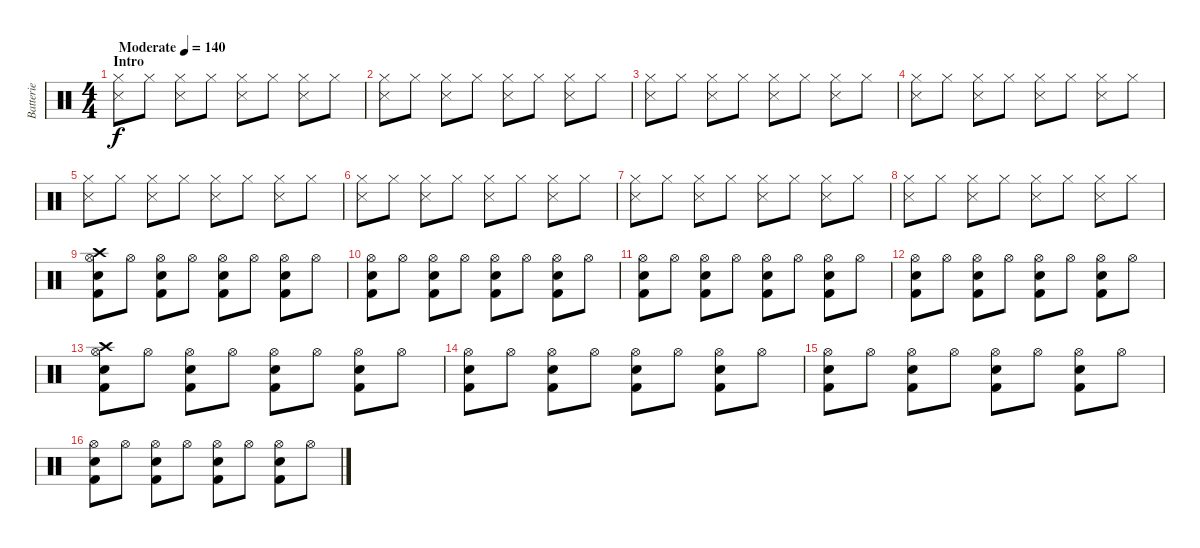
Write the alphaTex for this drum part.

\track ("Batterie" "Batterie") {instrument percussion}
\staff {score}
\articulation defaults
\ts (4 4)
\section ("" "Intro")
\tempo (140 "Moderate")
\clef neutral
\ks c
("Hi-Hat (closed)" "Metronome (hit)").8{dy f} "Hi-Hat (closed)".8 ("Hi-Hat (closed)" "Metronome (hit)").8 "Hi-Hat (closed)".8 ("Hi-Hat (closed)" "Metronome (hit)").8 "Hi-Hat (closed)".8 ("Hi-Hat (closed)" "Metronome (hit)").8 "Hi-Hat (closed)".8 |
("Hi-Hat (closed)" "Metronome (hit)").8 "Hi-Hat (closed)".8 ("Hi-Hat (closed)" "Metronome (hit)").8 "Hi-Hat (closed)".8 ("Hi-Hat (closed)" "Metronome (hit)").8 "Hi-Hat (closed)".8 ("Hi-Hat (closed)" "Metronome (hit)").8 "Hi-Hat (closed)".8 |
("Hi-Hat (closed)" "Metronome (hit)").8 "Hi-Hat (closed)".8 ("Hi-Hat (closed)" "Metronome (hit)").8 "Hi-Hat (closed)".8 ("Hi-Hat (closed)" "Metronome (hit)").8 "Hi-Hat (closed)".8 ("Hi-Hat (closed)" "Metronome (hit)").8 "Hi-Hat (closed)".8 |
("Hi-Hat (closed)" "Metronome (hit)").8 "Hi-Hat (closed)".8 ("Hi-Hat (closed)" "Metronome (hit)").8 "Hi-Hat (closed)".8 ("Hi-Hat (closed)" "Metronome (hit)").8 "Hi-Hat (closed)".8 ("Hi-Hat (closed)" "Metronome (hit)").8 "Hi-Hat (closed)".8 |
("Hi-Hat (closed)" "Metronome (hit)").8 "Hi-Hat (closed)".8 ("Hi-Hat (closed)" "Metronome (hit)").8 "Hi-Hat (closed)".8 ("Hi-Hat (closed)" "Metronome (hit)").8 "Hi-Hat (closed)".8 ("Hi-Hat (closed)" "Metronome (hit)").8 "Hi-Hat (closed)".8 |
("Hi-Hat (closed)" "Metronome (hit)").8 "Hi-Hat (closed)".8 ("Hi-Hat (closed)" "Metronome (hit)").8 "Hi-Hat (closed)".8 ("Hi-Hat (closed)" "Metronome (hit)").8 "Hi-Hat (closed)".8 ("Hi-Hat (closed)" "Metronome (hit)").8 "Hi-Hat (closed)".8 |
("Hi-Hat (closed)" "Metronome (hit)").8 "Hi-Hat (closed)".8 ("Hi-Hat (closed)" "Metronome (hit)").8 "Hi-Hat (closed)".8 ("Hi-Hat (closed)" "Metronome (hit)").8 "Hi-Hat (closed)".8 ("Hi-Hat (closed)" "Metronome (hit)").8 "Hi-Hat (closed)".8 |
("Hi-Hat (closed)" "Metronome (hit)").8 "Hi-Hat (closed)".8 ("Hi-Hat (closed)" "Metronome (hit)").8 "Hi-Hat (closed)".8 ("Hi-Hat (closed)" "Metronome (hit)").8 "Hi-Hat (closed)".8 ("Hi-Hat (closed)" "Metronome (hit)").8 "Hi-Hat (closed)".8 |
("Crash high (hit)" "Hi-Hat (open)" "Electric Snare (hit)" "Kick (hit) 2").8 "Hi-Hat (open)".8 ("Hi-Hat (open)" "Electric Snare (hit)" "Kick (hit) 2").8 "Hi-Hat (open)".8 ("Hi-Hat (open)" "Electric Snare (hit)" "Kick (hit) 2").8 "Hi-Hat (open)".8 ("Hi-Hat (open)" "Electric Snare (hit)" "Kick (hit) 2").8 "Hi-Hat (open)".8 |
("Hi-Hat (open)" "Electric Snare (hit)" "Kick (hit) 2").8 "Hi-Hat (open)".8 ("Hi-Hat (open)" "Electric Snare (hit)" "Kick (hit) 2").8 "Hi-Hat (open)".8 ("Hi-Hat (open)" "Electric Snare (hit)" "Kick (hit) 2").8 "Hi-Hat (open)".8 ("Hi-Hat (open)" "Electric Snare (hit)" "Kick (hit) 2").8 "Hi-Hat (open)".8 |
("Hi-Hat (open)" "Electric Snare (hit)" "Kick (hit) 2").8 "Hi-Hat (open)".8 ("Hi-Hat (open)" "Electric Snare (hit)" "Kick (hit) 2").8 "Hi-Hat (open)".8 ("Hi-Hat (open)" "Electric Snare (hit)" "Kick (hit) 2").8 "Hi-Hat (open)".8 ("Hi-Hat (open)" "Electric Snare (hit)" "Kick (hit) 2").8 "Hi-Hat (open)".8 |
("Hi-Hat (open)" "Electric Snare (hit)" "Kick (hit) 2").8 "Hi-Hat (open)".8 ("Hi-Hat (open)" "Electric Snare (hit)" "Kick (hit) 2").8 "Hi-Hat (open)".8 ("Hi-Hat (open)" "Electric Snare (hit)" "Kick (hit) 2").8 "Hi-Hat (open)".8 ("Hi-Hat (open)" "Electric Snare (hit)" "Kick (hit) 2").8 "Hi-Hat (open)".8 |
("Crash high (hit)" "Hi-Hat (open)" "Electric Snare (hit)" "Kick (hit) 2").8 "Hi-Hat (open)".8 ("Hi-Hat (open)" "Electric Snare (hit)" "Kick (hit) 2").8 "Hi-Hat (open)".8 ("Hi-Hat (open)" "Electric Snare (hit)" "Kick (hit) 2").8 "Hi-Hat (open)".8 ("Hi-Hat (open)" "Electric Snare (hit)" "Kick (hit) 2").8 "Hi-Hat (open)".8 |
("Hi-Hat (open)" "Electric Snare (hit)" "Kick (hit) 2").8 "Hi-Hat (open)".8 ("Hi-Hat (open)" "Electric Snare (hit)" "Kick (hit) 2").8 "Hi-Hat (open)".8 ("Hi-Hat (open)" "Electric Snare (hit)" "Kick (hit) 2").8 "Hi-Hat (open)".8 ("Hi-Hat (open)" "Electric Snare (hit)" "Kick (hit) 2").8 "Hi-Hat (open)".8 |
("Hi-Hat (open)" "Electric Snare (hit)" "Kick (hit) 2").8 "Hi-Hat (open)".8 ("Hi-Hat (open)" "Electric Snare (hit)" "Kick (hit) 2").8 "Hi-Hat (open)".8 ("Hi-Hat (open)" "Electric Snare (hit)" "Kick (hit) 2").8 "Hi-Hat (open)".8 ("Hi-Hat (open)" "Electric Snare (hit)" "Kick (hit) 2").8 "Hi-Hat (open)".8 |
("Hi-Hat (open)" "Electric Snare (hit)" "Kick (hit) 2").8 "Hi-Hat (open)".8 ("Hi-Hat (open)" "Electric Snare (hit)" "Kick (hit) 2").8 "Hi-Hat (open)".8 ("Hi-Hat (open)" "Electric Snare (hit)" "Kick (hit) 2").8 "Hi-Hat (open)".8 ("Hi-Hat (open)" "Electric Snare (hit)" "Kick (hit) 2").8 "Hi-Hat (open)".8
